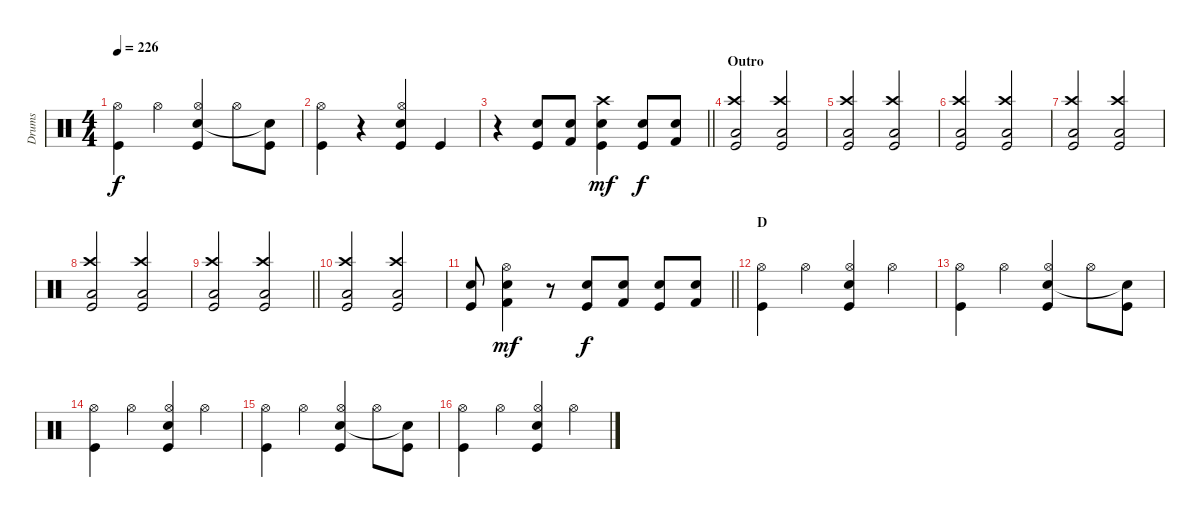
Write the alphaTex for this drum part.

\track ("Drums" "Drums") {instrument percussion}
\staff {score}
\articulation defaults
\ts (4 4)
\tempo 226
\clef neutral
\ks c
("Kick (hit)" "Hi-Hat (open)").4{dy f} "Hi-Hat (open)".4 ("Kick (hit)" "Snare (hit) 2" "Hi-Hat (open)").4 "Hi-Hat (open)".8 ("Kick (hit)" "Snare (hit)"{t}).8 |
("Kick (hit)" "Hi-Hat (open)").4 r.4 ("Kick (hit)" "Snare (hit) 2" "Hi-Hat (open)").4 "Kick (hit)".4 |
\barLineRight lightlight
r.4 ("Kick (hit)" "Snare (hit) 2").8 ("Kick (hit) 2" "Electric Snare (hit)").8 ("Kick (hit)" "Snare (hit) 2" "Crash high (hit)").4{dy mf} ("Kick (hit)" "Snare (hit) 2").8{dy f} ("Kick (hit) 2" "Electric Snare (hit)").8 |
\section ("" "Outro")
("Kick (hit)" "Low Tom (hit)" "Crash high (hit)").2 ("Kick (hit)" "Low Tom (hit)" "Crash high (hit)").2 |
("Kick (hit)" "Low Tom (hit)" "Crash high (hit)").2 ("Kick (hit)" "Low Tom (hit)" "Crash high (hit)").2 |
("Kick (hit)" "Low Tom (hit)" "Crash high (hit)").2 ("Kick (hit)" "Low Tom (hit)" "Crash high (hit)").2 |
("Kick (hit)" "Low Tom (hit)" "Crash high (hit)").2 ("Kick (hit)" "Low Tom (hit)" "Crash high (hit)").2 |
("Kick (hit)" "Low Tom (hit)" "Crash high (hit)").2 ("Kick (hit)" "Low Tom (hit)" "Crash high (hit)").2 |
\barLineRight lightlight
("Kick (hit)" "Low Tom (hit)" "Crash high (hit)").2 ("Kick (hit)" "Low Tom (hit)" "Crash high (hit)").2 |
("Kick (hit)" "Low Tom (hit)" "Crash high (hit)").2 ("Kick (hit)" "Low Tom (hit)" "Crash high (hit)").2 |
\barLineRight lightlight
("Kick (hit)" "Electric Snare (hit)").8 ("Kick (hit) 2" "Snare (hit) 2" "Hi-Hat (open)").4{dy mf} r.8 ("Kick (hit)" "Snare (hit) 2").8{dy f} ("Kick (hit) 2" "Snare (hit) 2").8 ("Kick (hit)" "Snare (hit) 2").8 ("Kick (hit) 2" "Snare (hit) 2").8 |
\section ("" "D")
("Kick (hit)" "Hi-Hat (open)").4 "Hi-Hat (open)".4 ("Kick (hit)" "Snare (hit) 2" "Hi-Hat (open)").4 "Hi-Hat (open)".4 |
("Kick (hit)" "Hi-Hat (open)").4 "Hi-Hat (open)".4 ("Kick (hit)" "Snare (hit) 2" "Hi-Hat (open)").4 "Hi-Hat (open)".8 ("Kick (hit)" "Snare (hit)"{t}).8 |
("Kick (hit)" "Hi-Hat (open)").4 "Hi-Hat (open)".4 ("Kick (hit)" "Snare (hit) 2" "Hi-Hat (open)").4 "Hi-Hat (open)".4 |
("Kick (hit)" "Hi-Hat (open)").4 "Hi-Hat (open)".4 ("Kick (hit)" "Snare (hit) 2" "Hi-Hat (open)").4 "Hi-Hat (open)".8 ("Kick (hit)" "Snare (hit)"{t}).8 |
("Kick (hit)" "Hi-Hat (open)").4 "Hi-Hat (open)".4 ("Kick (hit)" "Snare (hit) 2" "Hi-Hat (open)").4 "Hi-Hat (open)".4
